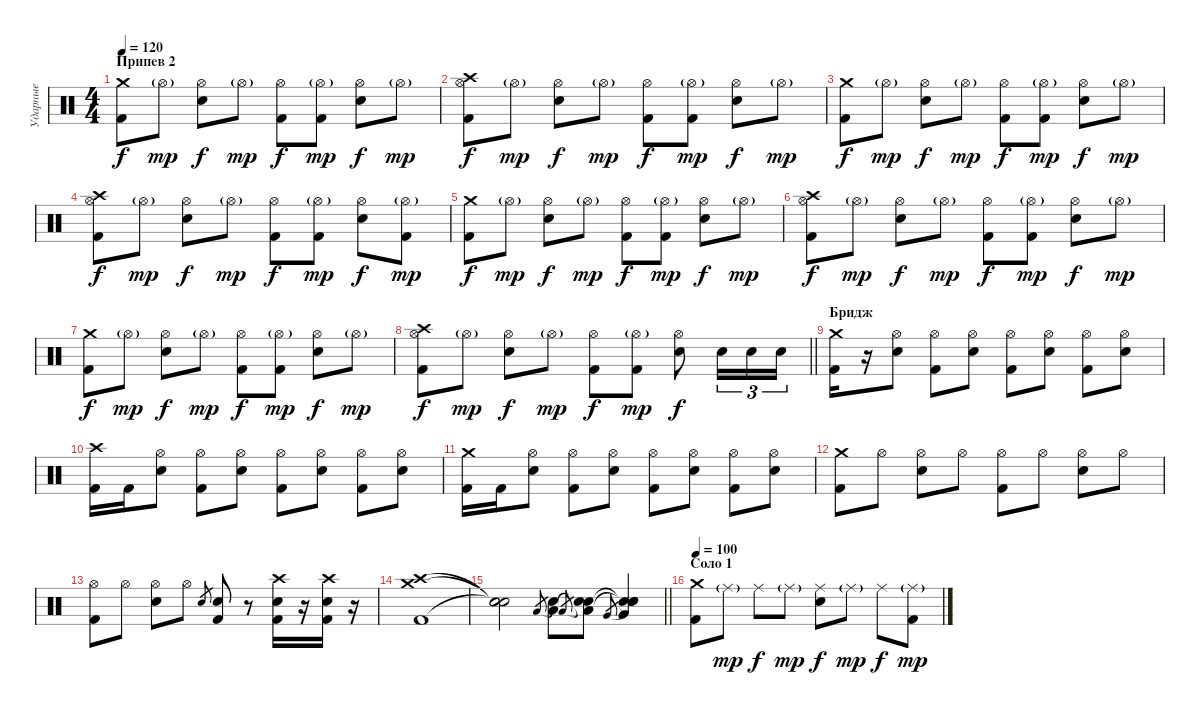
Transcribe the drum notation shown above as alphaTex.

\track ("Ударные" "Ударные") {instrument percussion}
\staff {score}
\articulation defaults
\ts (4 4)
\section ("" "Припев 2")
\tempo 120
\clef neutral
\ks c
("Crash medium (hit)" "Kick (hit) 2").8{dy f} "Hi-Hat (open)"{g}.8{dy mp} ("Hi-Hat (open)" "Snare (hit) 2").8{dy f} "Hi-Hat (open)"{g}.8{dy mp} ("Hi-Hat (open)" "Kick (hit) 2").8{dy f} ("Hi-Hat (open)"{g} "Kick (hit) 2").8{dy mp} ("Hi-Hat (open)" "Snare (hit) 2").8{dy f} "Hi-Hat (open)"{g}.8{dy mp} |
("Crash high (hit)" "Hi-Hat (open)" "Kick (hit) 2").8{dy f} "Hi-Hat (open)"{g}.8{dy mp} ("Hi-Hat (open)" "Snare (hit) 2").8{dy f} "Hi-Hat (open)"{g}.8{dy mp} ("Hi-Hat (open)" "Kick (hit) 2").8{dy f} ("Hi-Hat (open)"{g} "Kick (hit) 2").8{dy mp} ("Hi-Hat (open)" "Snare (hit) 2").8{dy f} "Hi-Hat (open)"{g}.8{dy mp} |
("Crash medium (hit)" "Kick (hit) 2").8{dy f} "Hi-Hat (open)"{g}.8{dy mp} ("Hi-Hat (open)" "Snare (hit) 2").8{dy f} "Hi-Hat (open)"{g}.8{dy mp} ("Hi-Hat (open)" "Kick (hit) 2").8{dy f} ("Hi-Hat (open)"{g} "Kick (hit) 2").8{dy mp} ("Hi-Hat (open)" "Snare (hit) 2").8{dy f} "Hi-Hat (open)"{g}.8{dy mp} |
("Crash high (hit)" "Hi-Hat (open)" "Kick (hit) 2").8{dy f} "Hi-Hat (open)"{g}.8{dy mp} ("Hi-Hat (open)" "Snare (hit) 2").8{dy f} "Hi-Hat (open)"{g}.8{dy mp} ("Hi-Hat (open)" "Kick (hit) 2").8{dy f} ("Hi-Hat (open)"{g} "Kick (hit) 2").8{dy mp} ("Hi-Hat (open)" "Snare (hit) 2").8{dy f} ("Hi-Hat (open)"{g} "Kick (hit) 2").8{dy mp} |
("Crash medium (hit)" "Kick (hit) 2").8{dy f} "Hi-Hat (open)"{g}.8{dy mp} ("Hi-Hat (open)" "Snare (hit) 2").8{dy f} "Hi-Hat (open)"{g}.8{dy mp} ("Hi-Hat (open)" "Kick (hit) 2").8{dy f} ("Hi-Hat (open)"{g} "Kick (hit) 2").8{dy mp} ("Hi-Hat (open)" "Snare (hit) 2").8{dy f} "Hi-Hat (open)"{g}.8{dy mp} |
("Hi-Hat (open)" "Kick (hit) 2" "Crash high (hit)").8{dy f} "Hi-Hat (open)"{g}.8{dy mp} ("Hi-Hat (open)" "Snare (hit) 2").8{dy f} "Hi-Hat (open)"{g}.8{dy mp} ("Hi-Hat (open)" "Kick (hit) 2").8{dy f} ("Hi-Hat (open)"{g} "Kick (hit) 2").8{dy mp} ("Hi-Hat (open)" "Snare (hit) 2").8{dy f} "Hi-Hat (open)"{g}.8{dy mp} |
("Crash medium (hit)" "Kick (hit) 2").8{dy f} "Hi-Hat (open)"{g}.8{dy mp} ("Hi-Hat (open)" "Snare (hit) 2").8{dy f} "Hi-Hat (open)"{g}.8{dy mp} ("Hi-Hat (open)" "Kick (hit) 2").8{dy f} ("Hi-Hat (open)"{g} "Kick (hit) 2").8{dy mp} ("Hi-Hat (open)" "Snare (hit) 2").8{dy f} "Hi-Hat (open)"{g}.8{dy mp} |
\barLineRight lightlight
("Crash high (hit)" "Hi-Hat (open)" "Kick (hit) 2").8{dy f} "Hi-Hat (open)"{g}.8{dy mp} ("Hi-Hat (open)" "Snare (hit) 2").8{dy f} "Hi-Hat (open)"{g}.8{dy mp} ("Hi-Hat (open)" "Kick (hit) 2").8{dy f} ("Hi-Hat (open)"{g} "Kick (hit) 2").8{dy mp} ("Hi-Hat (open)" "Snare (hit) 2").8{dy f} "Snare (hit) 2".16{tu (3 2)} "Snare (hit) 2".16{tu (3 2)} "Snare (hit) 2".16{tu (3 2)} |
\section ("" "Бридж")
("Crash medium (hit)" "Kick (hit) 2").16 r.16 ("Hi-Hat (open)" "Snare (hit) 2").8 ("Hi-Hat (open)" "Kick (hit) 2").8 ("Hi-Hat (open)" "Snare (hit) 2").8 ("Hi-Hat (open)" "Kick (hit) 2").8 ("Hi-Hat (open)" "Snare (hit) 2").8 ("Hi-Hat (open)" "Kick (hit) 2").8 ("Hi-Hat (open)" "Snare (hit) 2").8 |
("Crash high (hit)" "Kick (hit) 2").16 "Kick (hit) 2".16 ("Hi-Hat (open)" "Snare (hit) 2").8 ("Hi-Hat (open)" "Kick (hit) 2").8 ("Hi-Hat (open)" "Snare (hit) 2").8 ("Hi-Hat (open)" "Kick (hit) 2").8 ("Hi-Hat (open)" "Snare (hit) 2").8 ("Hi-Hat (open)" "Kick (hit) 2").8 ("Hi-Hat (open)" "Snare (hit) 2").8 |
("Crash medium (hit)" "Kick (hit) 2").16 "Kick (hit) 2".16 ("Hi-Hat (open)" "Snare (hit) 2").8 ("Hi-Hat (open)" "Kick (hit) 2").8 ("Hi-Hat (open)" "Snare (hit) 2").8 ("Hi-Hat (open)" "Kick (hit) 2").8 ("Hi-Hat (open)" "Snare (hit) 2").8 ("Hi-Hat (open)" "Kick (hit) 2").8 ("Hi-Hat (open)" "Snare (hit) 2").8 |
("Crash medium (hit)" "Kick (hit) 2").8 "Hi-Hat (open)".8 ("Hi-Hat (open)" "Snare (hit) 2").8 "Hi-Hat (open)".8 ("Hi-Hat (open)" "Kick (hit) 2").8 "Hi-Hat (open)".8 ("Hi-Hat (open)" "Snare (hit) 2").8 "Hi-Hat (open)".8 |
("Hi-Hat (open)" "Kick (hit) 2").8 "Hi-Hat (open)".8 ("Hi-Hat (open)" "Snare (hit) 2").8 "Hi-Hat (open)".8 "Snare (hit) 2".8{gr} ("Snare (hit) 2" "Kick (hit) 2").8 r.8 ("Crash high (hit)" "Snare (hit) 2" "Kick (hit) 2").16 r.16{volume 0} ("Crash high (hit)" "Snare (hit) 2" "Kick (hit) 2").16{volume 13} r.16 |
("Crash high (hit)" "Crash medium (hit)" "Kick (hit) 2").1 |
\barLineRight lightlight
("Snare (hit)"{t} "Snare (hit)"{t} "Snare (hit)"{t}).2 "Low Tom (hit)".8{gr} ("Snare (hit)"{t} "Low Tom (hit)").8 "Low Tom (hit)".8{gr} ("Snare (hit)"{t} "Snare (hit)"{t} "Low Tom (hit)").8 "Very Low Tom (hit)".8{gr} ("Snare (hit)"{t} "Snare (hit)"{t} "Snare (hit)"{t} "Very Low Tom (hit)").4 |
\section ("" "Соло 1")
\tempo 100
("Kick (hit) 2" "Crash medium (hit)").8 "Ride (middle)"{g}.8{dy mp} "Ride (middle)".8{dy f} "Ride (middle)"{g}.8{dy mp} ("Ride (middle)" "Snare (hit) 2").8{dy f} "Ride (middle)"{g}.8{dy mp} "Ride (middle)".8{dy f} ("Ride (middle)"{g} "Kick (hit) 2").8{dy mp}
